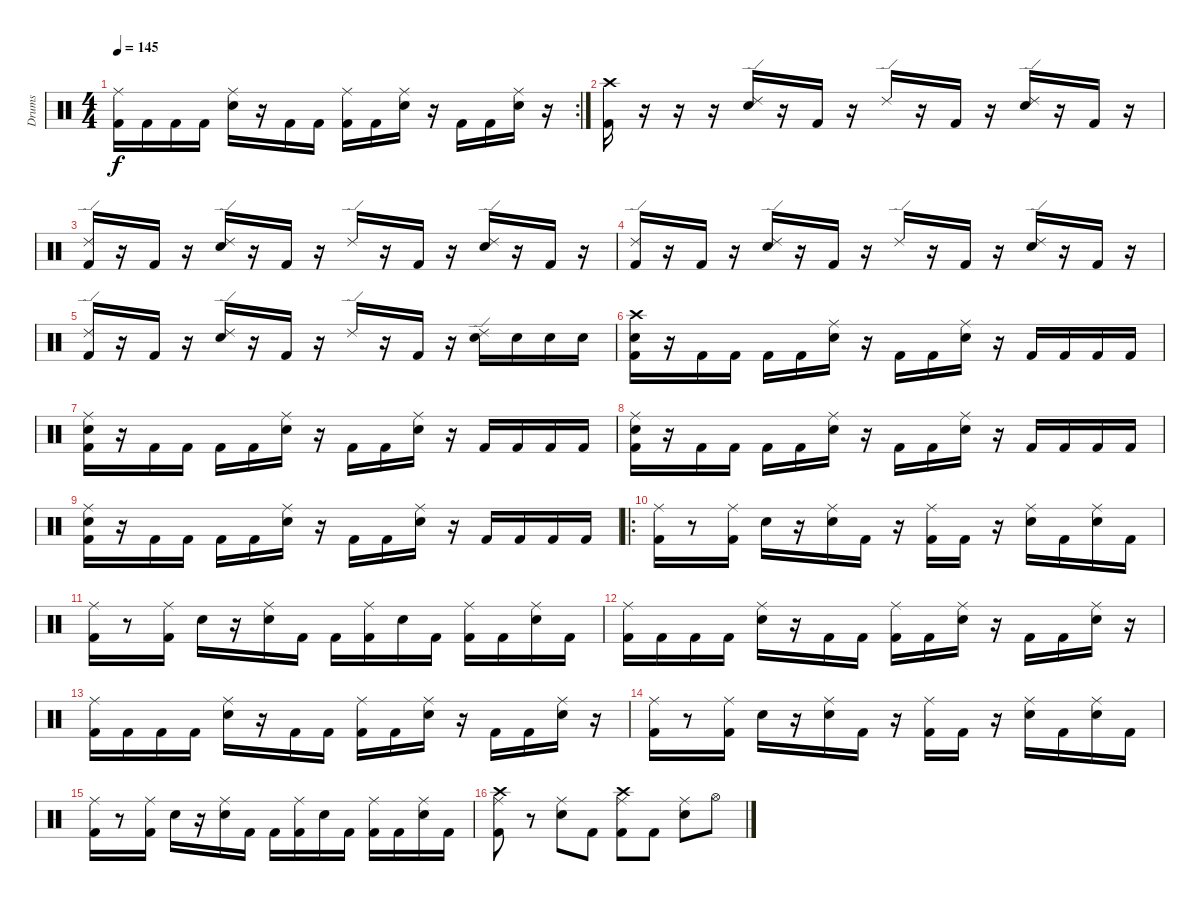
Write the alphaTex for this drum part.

\track ("Drums" "Drums") {instrument percussion}
\staff {score}
\articulation defaults
\rc 2
\ts (4 4)
\tempo 145
\clef neutral
\ks c
("Ride (middle)" "Kick (hit) 2").16{dy f} "Kick (hit) 2".16 "Kick (hit) 2".16 "Kick (hit) 2".16 ("Ride (middle)" "Electric Snare (hit)").16 r.16 "Kick (hit) 2".16 "Kick (hit) 2".16 ("Ride (middle)" "Kick (hit) 2").16 "Kick (hit) 2".16 ("Ride (middle)" "Electric Snare (hit)").16 r.16 "Kick (hit) 2".16 "Kick (hit) 2".16 ("Ride (middle)" "Electric Snare (hit)").16 r.16 |
("Crash high (hit)" "Kick (hit) 2").16 r.16 r.16 r.16 ("Ride (edge) 2" "Electric Snare (hit)").16 r.16 "Kick (hit) 2".16 r.16 "Ride (edge) 2".16 r.16 "Kick (hit) 2".16 r.16 ("Ride (edge) 2" "Electric Snare (hit)").16 r.16 "Kick (hit) 2".16 r.16 |
("Ride (edge) 2" "Kick (hit) 2").16 r.16 "Kick (hit) 2".16 r.16 ("Ride (edge) 2" "Electric Snare (hit)").16 r.16 "Kick (hit) 2".16 r.16 "Ride (edge) 2".16 r.16 "Kick (hit) 2".16 r.16 ("Ride (edge) 2" "Electric Snare (hit)").16 r.16 "Kick (hit) 2".16 r.16 |
("Ride (edge) 2" "Kick (hit) 2").16 r.16 "Kick (hit) 2".16 r.16 ("Ride (edge) 2" "Electric Snare (hit)").16 r.16 "Kick (hit) 2".16 r.16 "Ride (edge) 2".16 r.16 "Kick (hit) 2".16 r.16 ("Ride (edge) 2" "Electric Snare (hit)").16 r.16 "Kick (hit) 2".16 r.16 |
("Ride (edge) 2" "Kick (hit) 2").16 r.16 "Kick (hit) 2".16 r.16 ("Ride (edge) 2" "Electric Snare (hit)").16 r.16 "Kick (hit) 2".16 r.16 "Ride (edge) 2".16 r.16 "Kick (hit) 2".16 r.16 ("Ride (edge) 2" "Electric Snare (hit)").16 "Electric Snare (hit)".16 "Electric Snare (hit)".16 "Electric Snare (hit)".16 |
("Crash high (hit)" "Electric Snare (hit)" "Kick (hit) 2").16 r.16 "Kick (hit) 2".16 "Kick (hit) 2".16 "Kick (hit) 2".16 "Kick (hit) 2".16 ("Ride (middle)" "Electric Snare (hit)").16 r.16 "Kick (hit) 2".16 "Kick (hit) 2".16 ("Ride (middle)" "Electric Snare (hit)").16 r.16 "Kick (hit) 2".16 "Kick (hit) 2".16 "Kick (hit) 2".16 "Kick (hit) 2".16 |
("Ride (middle)" "Electric Snare (hit)" "Kick (hit) 2").16 r.16 "Kick (hit) 2".16 "Kick (hit) 2".16 "Kick (hit) 2".16 "Kick (hit) 2".16 ("Ride (middle)" "Electric Snare (hit)").16 r.16 "Kick (hit) 2".16 "Kick (hit) 2".16 ("Ride (middle)" "Electric Snare (hit)").16 r.16 "Kick (hit) 2".16 "Kick (hit) 2".16 "Kick (hit) 2".16 "Kick (hit) 2".16 |
("Ride (middle)" "Electric Snare (hit)" "Kick (hit) 2").16 r.16 "Kick (hit) 2".16 "Kick (hit) 2".16 "Kick (hit) 2".16 "Kick (hit) 2".16 ("Ride (middle)" "Electric Snare (hit)").16 r.16 "Kick (hit) 2".16 "Kick (hit) 2".16 ("Ride (middle)" "Electric Snare (hit)").16 r.16 "Kick (hit) 2".16 "Kick (hit) 2".16 "Kick (hit) 2".16 "Kick (hit) 2".16 |
("Ride (middle)" "Electric Snare (hit)" "Kick (hit) 2").16 r.16 "Kick (hit) 2".16 "Kick (hit) 2".16 "Kick (hit) 2".16 "Kick (hit) 2".16 ("Ride (middle)" "Electric Snare (hit)").16 r.16 "Kick (hit) 2".16 "Kick (hit) 2".16 ("Ride (middle)" "Electric Snare (hit)").16 r.16 "Kick (hit) 2".16 "Kick (hit) 2".16 "Kick (hit) 2".16 "Kick (hit) 2".16 |
\ro
("Ride (middle)" "Kick (hit) 2").16 r.8 ("Ride (middle)" "Kick (hit) 2").16 "Electric Snare (hit)".16 r.16 ("Ride (middle)" "Electric Snare (hit)").16 "Kick (hit) 2".16 r.16 ("Ride (middle)" "Kick (hit) 2").16 "Kick (hit) 2".16 r.16 ("Ride (middle)" "Electric Snare (hit)").16 "Kick (hit) 2".16 ("Ride (middle)" "Electric Snare (hit)").16 "Kick (hit) 2".16 |
("Ride (middle)" "Kick (hit) 2").16 r.8 ("Ride (middle)" "Kick (hit) 2").16 "Electric Snare (hit)".16 r.16 ("Ride (middle)" "Electric Snare (hit)").16 "Kick (hit) 2".16 "Kick (hit) 2".16 ("Ride (middle)" "Kick (hit) 2").16 "Electric Snare (hit)".16 "Kick (hit) 2".16 ("Ride (middle)" "Kick (hit) 2").16 "Kick (hit) 2".16 ("Ride (middle)" "Electric Snare (hit)").16 "Kick (hit) 2".16 |
("Ride (middle)" "Kick (hit) 2").16 "Kick (hit) 2".16 "Kick (hit) 2".16 "Kick (hit) 2".16 ("Ride (middle)" "Electric Snare (hit)").16 r.16 "Kick (hit) 2".16 "Kick (hit) 2".16 ("Ride (middle)" "Kick (hit) 2").16 "Kick (hit) 2".16 ("Ride (middle)" "Electric Snare (hit)").16 r.16 "Kick (hit) 2".16 "Kick (hit) 2".16 ("Ride (middle)" "Electric Snare (hit)").16 r.16 |
("Ride (middle)" "Kick (hit) 2").16 "Kick (hit) 2".16 "Kick (hit) 2".16 "Kick (hit) 2".16 ("Ride (middle)" "Electric Snare (hit)").16 r.16 "Kick (hit) 2".16 "Kick (hit) 2".16 ("Ride (middle)" "Kick (hit) 2").16 "Kick (hit) 2".16 ("Ride (middle)" "Electric Snare (hit)").16 r.16 "Kick (hit) 2".16 "Kick (hit) 2".16 ("Ride (middle)" "Electric Snare (hit)").16 r.16 |
("Ride (middle)" "Kick (hit) 2").16 r.8 ("Ride (middle)" "Kick (hit) 2").16 "Electric Snare (hit)".16 r.16 ("Ride (middle)" "Electric Snare (hit)").16 "Kick (hit) 2".16 r.16 ("Ride (middle)" "Kick (hit) 2").16 "Kick (hit) 2".16 r.16 ("Ride (middle)" "Electric Snare (hit)").16 "Kick (hit) 2".16 ("Ride (middle)" "Electric Snare (hit)").16 "Kick (hit) 2".16 |
("Ride (middle)" "Kick (hit) 2").16 r.8 ("Ride (middle)" "Kick (hit) 2").16 "Electric Snare (hit)".16 r.16 ("Ride (middle)" "Electric Snare (hit)").16 "Kick (hit) 2".16 "Kick (hit) 2".16 ("Ride (middle)" "Kick (hit) 2").16 "Electric Snare (hit)".16 "Kick (hit) 2".16 ("Ride (middle)" "Kick (hit) 2").16 "Kick (hit) 2".16 ("Ride (middle)" "Electric Snare (hit)").16 "Kick (hit) 2".16 |
("Ride (middle)" "Kick (hit) 2" "Crash high (hit)").8 r.8 ("Ride (middle)" "Electric Snare (hit)").8 "Kick (hit) 2".8 ("Ride (middle)" "Kick (hit) 2" "Crash high (hit)").8 "Kick (hit) 2".8 ("Ride (middle)" "Electric Snare (hit)").8 "Hi-Hat (open)".8
